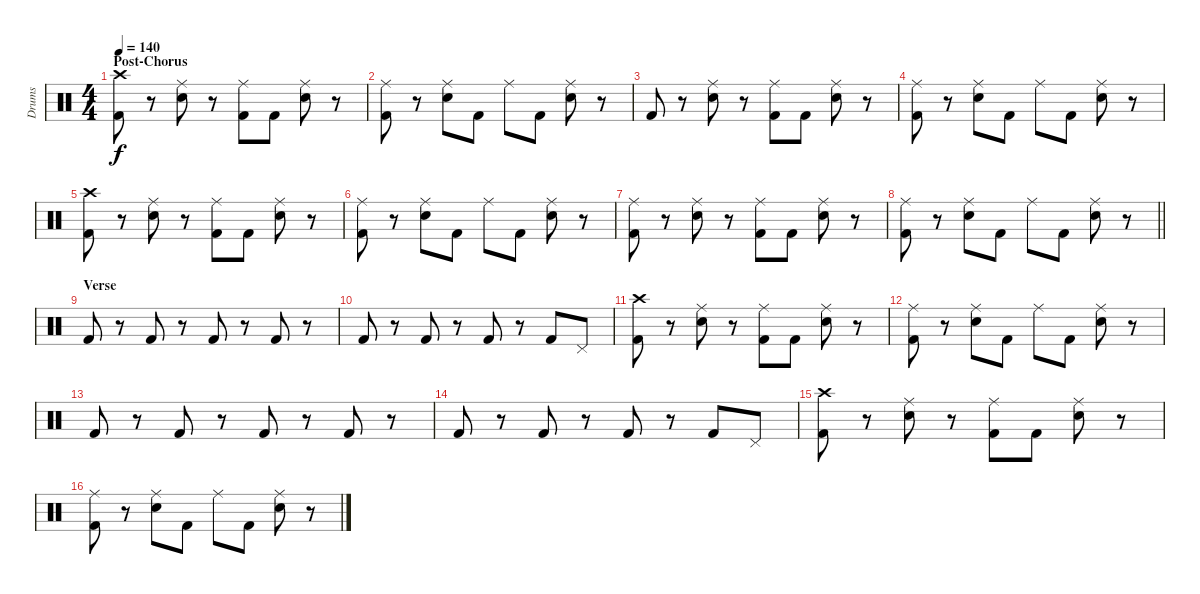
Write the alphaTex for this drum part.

\track ("Drums" "Drums") {instrument percussion}
\staff {score}
\articulation defaults
\ts (4 4)
\section ("" "Post-Chorus")
\tempo 140
\clef neutral
\ks c
("Crash high (hit)" "Kick (hit) 2").8{dy f} r.8 ("Ride (middle)" "Snare (hit) 2").8 r.8 ("Ride (middle)" "Kick (hit) 2").8 "Kick (hit) 2".8 ("Ride (middle)" "Snare (hit) 2").8 r.8 |
("Ride (middle)" "Kick (hit) 2").8 r.8 ("Ride (middle)" "Snare (hit) 2").8 "Kick (hit) 2".8 "Ride (middle)".8 "Kick (hit) 2".8 ("Ride (middle)" "Snare (hit) 2").8 r.8 |
"Kick (hit) 2".8 r.8 ("Ride (middle)" "Snare (hit) 2").8 r.8 ("Ride (middle)" "Kick (hit) 2").8 "Kick (hit) 2".8 ("Ride (middle)" "Snare (hit) 2").8 r.8 |
("Ride (middle)" "Kick (hit) 2").8 r.8 ("Ride (middle)" "Snare (hit) 2").8 "Kick (hit) 2".8 "Ride (middle)".8 "Kick (hit) 2".8 ("Ride (middle)" "Snare (hit) 2").8 r.8 |
("Crash high (hit)" "Kick (hit) 2").8 r.8 ("Ride (middle)" "Snare (hit) 2").8 r.8 ("Ride (middle)" "Kick (hit) 2").8 "Kick (hit) 2".8 ("Ride (middle)" "Snare (hit) 2").8 r.8 |
("Ride (middle)" "Kick (hit) 2").8 r.8 ("Ride (middle)" "Snare (hit) 2").8 "Kick (hit) 2".8 "Ride (middle)".8 "Kick (hit) 2".8 ("Ride (middle)" "Snare (hit) 2").8 r.8 |
("Ride (middle)" "Kick (hit) 2").8 r.8 ("Ride (middle)" "Snare (hit) 2").8 r.8 ("Ride (middle)" "Kick (hit) 2").8 "Kick (hit) 2".8 ("Ride (middle)" "Snare (hit) 2").8 r.8 |
\barLineRight lightlight
("Ride (middle)" "Kick (hit) 2").8 r.8 ("Ride (middle)" "Snare (hit) 2").8 "Kick (hit) 2".8 "Ride (middle)".8 "Kick (hit) 2".8 ("Ride (middle)" "Snare (hit) 2").8 r.8 |
\section ("" "Verse")
"Kick (hit) 2".8 r.8 "Kick (hit) 2".8 r.8 "Kick (hit) 2".8 r.8 "Kick (hit) 2".8 r.8 |
"Kick (hit) 2".8 r.8 "Kick (hit) 2".8 r.8 "Kick (hit) 2".8 r.8 "Kick (hit) 2".8 "Pedal Hi-Hat (hit)".8 |
("Crash high (hit)" "Kick (hit) 2").8 r.8 ("Ride (middle)" "Snare (hit) 2").8 r.8 ("Ride (middle)" "Kick (hit) 2").8 "Kick (hit) 2".8 ("Ride (middle)" "Snare (hit) 2").8 r.8 |
("Ride (middle)" "Kick (hit) 2").8 r.8 ("Ride (middle)" "Snare (hit) 2").8 "Kick (hit) 2".8 "Ride (middle)".8 "Kick (hit) 2".8 ("Ride (middle)" "Snare (hit) 2").8 r.8 |
"Kick (hit) 2".8 r.8 "Kick (hit) 2".8 r.8 "Kick (hit) 2".8 r.8 "Kick (hit) 2".8 r.8 |
"Kick (hit) 2".8 r.8 "Kick (hit) 2".8 r.8 "Kick (hit) 2".8 r.8 "Kick (hit) 2".8 "Pedal Hi-Hat (hit)".8 |
("Crash high (hit)" "Kick (hit) 2").8 r.8 ("Ride (middle)" "Snare (hit) 2").8 r.8 ("Ride (middle)" "Kick (hit) 2").8 "Kick (hit) 2".8 ("Ride (middle)" "Snare (hit) 2").8 r.8 |
("Ride (middle)" "Kick (hit) 2").8 r.8 ("Ride (middle)" "Snare (hit) 2").8 "Kick (hit) 2".8 "Ride (middle)".8 "Kick (hit) 2".8 ("Ride (middle)" "Snare (hit) 2").8 r.8
